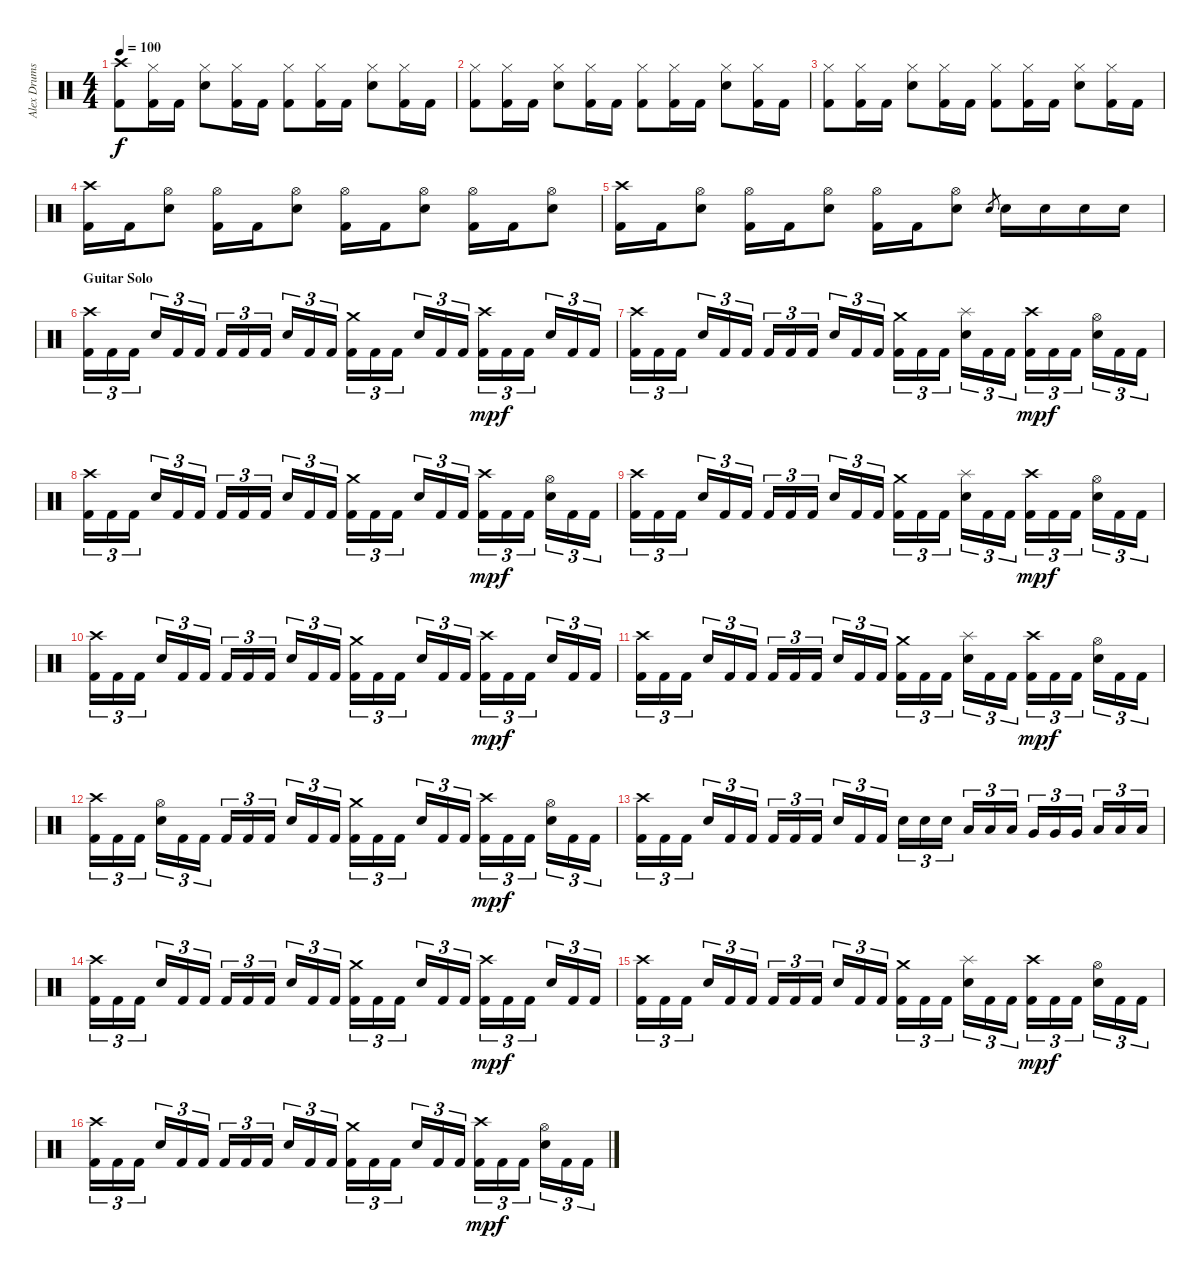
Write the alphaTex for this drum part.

\track ("Alex Drums" "Alex Drums") {instrument percussion}
\staff {score}
\articulation defaults
\ts (4 4)
\tempo 100
\clef neutral
\ks c
("Crash high (hit)" "Kick (hit) 2").8{dy f} ("Hi-Hat (closed)" "Kick (hit) 2").16 "Kick (hit) 2".16 ("Hi-Hat (closed)" "Electric Snare (hit)").8 ("Hi-Hat (closed)" "Kick (hit) 2").16 "Kick (hit) 2".16 ("Hi-Hat (closed)" "Kick (hit) 2").8 ("Hi-Hat (closed)" "Kick (hit) 2").16 "Kick (hit) 2".16 ("Hi-Hat (closed)" "Electric Snare (hit)").8 ("Hi-Hat (closed)" "Kick (hit) 2").16 "Kick (hit) 2".16 |
("Hi-Hat (closed)" "Kick (hit) 2").8 ("Hi-Hat (closed)" "Kick (hit) 2").16 "Kick (hit) 2".16 ("Hi-Hat (closed)" "Electric Snare (hit)").8 ("Hi-Hat (closed)" "Kick (hit) 2").16 "Kick (hit) 2".16 ("Hi-Hat (closed)" "Kick (hit) 2").8 ("Hi-Hat (closed)" "Kick (hit) 2").16 "Kick (hit) 2".16 ("Hi-Hat (closed)" "Electric Snare (hit)").8 ("Hi-Hat (closed)" "Kick (hit) 2").16 "Kick (hit) 2".16 |
("Hi-Hat (closed)" "Kick (hit) 2").8 ("Hi-Hat (closed)" "Kick (hit) 2").16 "Kick (hit) 2".16 ("Hi-Hat (closed)" "Electric Snare (hit)").8 ("Hi-Hat (closed)" "Kick (hit) 2").16 "Kick (hit) 2".16 ("Hi-Hat (closed)" "Kick (hit) 2").8 ("Hi-Hat (closed)" "Kick (hit) 2").16 "Kick (hit) 2".16 ("Hi-Hat (closed)" "Electric Snare (hit)").8 ("Hi-Hat (closed)" "Kick (hit) 2").16 "Kick (hit) 2".16 |
("Crash high (hit)" "Kick (hit) 2").16 "Kick (hit) 2".16 ("Hi-Hat (open)" "Electric Snare (hit)").8 ("Hi-Hat (open)" "Kick (hit) 2").16 "Kick (hit) 2".16 ("Hi-Hat (open)" "Electric Snare (hit)").8 ("Hi-Hat (open)" "Kick (hit) 2").16 "Kick (hit) 2".16 ("Hi-Hat (open)" "Electric Snare (hit)").8 ("Hi-Hat (open)" "Kick (hit) 2").16 "Kick (hit) 2".16 ("Hi-Hat (open)" "Electric Snare (hit)").8 |
("Crash high (hit)" "Kick (hit) 2").16 "Kick (hit) 2".16 ("Hi-Hat (open)" "Electric Snare (hit)").8 ("Hi-Hat (open)" "Kick (hit) 2").16 "Kick (hit) 2".16 ("Hi-Hat (open)" "Electric Snare (hit)").8 ("Hi-Hat (open)" "Kick (hit) 2").16 "Kick (hit) 2".16 ("Hi-Hat (open)" "Electric Snare (hit)").8 "Electric Snare (hit)".8{gr} "Electric Snare (hit)".16 "Electric Snare (hit)".16 "Electric Snare (hit)".16 "Electric Snare (hit)".16 |
\section ("" "Guitar Solo")
("Crash high (hit)" "Kick (hit) 2").16{tu (3 2)} "Kick (hit) 2".16{tu (3 2)} "Kick (hit) 2".16{tu (3 2)} "Electric Snare (hit)".16{tu (3 2)} "Kick (hit) 2".16{tu (3 2)} "Kick (hit) 2".16{tu (3 2)} "Kick (hit) 2".16{tu (3 2)} "Kick (hit) 2".16{tu (3 2)} "Kick (hit) 2".16{tu (3 2)} "Electric Snare (hit)".16{tu (3 2)} "Kick (hit) 2".16{tu (3 2)} "Kick (hit) 2".16{tu (3 2)} ("Crash medium (hit)" "Kick (hit) 2").16{tu (3 2)} "Kick (hit) 2".16{tu (3 2)} "Kick (hit) 2".16{tu (3 2)} "Electric Snare (hit)".16{tu (3 2)} "Kick (hit) 2".16{tu (3 2)} "Kick (hit) 2".16{tu (3 2)} ("Crash high (hit)" "Kick (hit) 2").16{tu (3 2) dy mp} "Kick (hit) 2".16{tu (3 2) dy f} "Kick (hit) 2".16{tu (3 2)} "Electric Snare (hit)".16{tu (3 2)} "Kick (hit) 2".16{tu (3 2)} "Kick (hit) 2".16{tu (3 2)} |
("Crash high (hit)" "Kick (hit) 2").16{tu (3 2)} "Kick (hit) 2".16{tu (3 2)} "Kick (hit) 2".16{tu (3 2)} "Electric Snare (hit)".16{tu (3 2)} "Kick (hit) 2".16{tu (3 2)} "Kick (hit) 2".16{tu (3 2)} "Kick (hit) 2".16{tu (3 2)} "Kick (hit) 2".16{tu (3 2)} "Kick (hit) 2".16{tu (3 2)} "Electric Snare (hit)".16{tu (3 2)} "Kick (hit) 2".16{tu (3 2)} "Kick (hit) 2".16{tu (3 2)} ("Crash medium (hit)" "Kick (hit) 2").16{tu (3 2)} "Kick (hit) 2".16{tu (3 2)} "Kick (hit) 2".16{tu (3 2)} ("Splash (hit)" "Electric Snare (hit)").16{tu (3 2)} "Kick (hit) 2".16{tu (3 2)} "Kick (hit) 2".16{tu (3 2)} ("Crash high (hit)" "Kick (hit) 2").16{tu (3 2) dy mp} "Kick (hit) 2".16{tu (3 2) dy f} "Kick (hit) 2".16{tu (3 2)} ("Hi-Hat (open)" "Electric Snare (hit)").16{tu (3 2)} "Kick (hit) 2".16{tu (3 2)} "Kick (hit) 2".16{tu (3 2)} |
("Crash high (hit)" "Kick (hit) 2").16{tu (3 2)} "Kick (hit) 2".16{tu (3 2)} "Kick (hit) 2".16{tu (3 2)} "Electric Snare (hit)".16{tu (3 2)} "Kick (hit) 2".16{tu (3 2)} "Kick (hit) 2".16{tu (3 2)} "Kick (hit) 2".16{tu (3 2)} "Kick (hit) 2".16{tu (3 2)} "Kick (hit) 2".16{tu (3 2)} "Electric Snare (hit)".16{tu (3 2)} "Kick (hit) 2".16{tu (3 2)} "Kick (hit) 2".16{tu (3 2)} ("Crash medium (hit)" "Kick (hit) 2").16{tu (3 2)} "Kick (hit) 2".16{tu (3 2)} "Kick (hit) 2".16{tu (3 2)} "Electric Snare (hit)".16{tu (3 2)} "Kick (hit) 2".16{tu (3 2)} "Kick (hit) 2".16{tu (3 2)} ("Crash high (hit)" "Kick (hit) 2").16{tu (3 2) dy mp} "Kick (hit) 2".16{tu (3 2) dy f} "Kick (hit) 2".16{tu (3 2)} ("Hi-Hat (open)" "Electric Snare (hit)").16{tu (3 2)} "Kick (hit) 2".16{tu (3 2)} "Kick (hit) 2".16{tu (3 2)} |
("Crash high (hit)" "Kick (hit) 2").16{tu (3 2)} "Kick (hit) 2".16{tu (3 2)} "Kick (hit) 2".16{tu (3 2)} "Electric Snare (hit)".16{tu (3 2)} "Kick (hit) 2".16{tu (3 2)} "Kick (hit) 2".16{tu (3 2)} "Kick (hit) 2".16{tu (3 2)} "Kick (hit) 2".16{tu (3 2)} "Kick (hit) 2".16{tu (3 2)} "Electric Snare (hit)".16{tu (3 2)} "Kick (hit) 2".16{tu (3 2)} "Kick (hit) 2".16{tu (3 2)} ("Crash medium (hit)" "Kick (hit) 2").16{tu (3 2)} "Kick (hit) 2".16{tu (3 2)} "Kick (hit) 2".16{tu (3 2)} ("Splash (hit)" "Electric Snare (hit)").16{tu (3 2)} "Kick (hit) 2".16{tu (3 2)} "Kick (hit) 2".16{tu (3 2)} ("Crash high (hit)" "Kick (hit) 2").16{tu (3 2) dy mp} "Kick (hit) 2".16{tu (3 2) dy f} "Kick (hit) 2".16{tu (3 2)} ("Hi-Hat (open)" "Electric Snare (hit)").16{tu (3 2)} "Kick (hit) 2".16{tu (3 2)} "Kick (hit) 2".16{tu (3 2)} |
("Crash high (hit)" "Kick (hit) 2").16{tu (3 2)} "Kick (hit) 2".16{tu (3 2)} "Kick (hit) 2".16{tu (3 2)} "Electric Snare (hit)".16{tu (3 2)} "Kick (hit) 2".16{tu (3 2)} "Kick (hit) 2".16{tu (3 2)} "Kick (hit) 2".16{tu (3 2)} "Kick (hit) 2".16{tu (3 2)} "Kick (hit) 2".16{tu (3 2)} "Electric Snare (hit)".16{tu (3 2)} "Kick (hit) 2".16{tu (3 2)} "Kick (hit) 2".16{tu (3 2)} ("Crash medium (hit)" "Kick (hit) 2").16{tu (3 2)} "Kick (hit) 2".16{tu (3 2)} "Kick (hit) 2".16{tu (3 2)} "Electric Snare (hit)".16{tu (3 2)} "Kick (hit) 2".16{tu (3 2)} "Kick (hit) 2".16{tu (3 2)} ("Crash high (hit)" "Kick (hit) 2").16{tu (3 2) dy mp} "Kick (hit) 2".16{tu (3 2) dy f} "Kick (hit) 2".16{tu (3 2)} "Electric Snare (hit)".16{tu (3 2)} "Kick (hit) 2".16{tu (3 2)} "Kick (hit) 2".16{tu (3 2)} |
("Crash high (hit)" "Kick (hit) 2").16{tu (3 2)} "Kick (hit) 2".16{tu (3 2)} "Kick (hit) 2".16{tu (3 2)} "Electric Snare (hit)".16{tu (3 2)} "Kick (hit) 2".16{tu (3 2)} "Kick (hit) 2".16{tu (3 2)} "Kick (hit) 2".16{tu (3 2)} "Kick (hit) 2".16{tu (3 2)} "Kick (hit) 2".16{tu (3 2)} "Electric Snare (hit)".16{tu (3 2)} "Kick (hit) 2".16{tu (3 2)} "Kick (hit) 2".16{tu (3 2)} ("Crash medium (hit)" "Kick (hit) 2").16{tu (3 2)} "Kick (hit) 2".16{tu (3 2)} "Kick (hit) 2".16{tu (3 2)} ("Splash (hit)" "Electric Snare (hit)").16{tu (3 2)} "Kick (hit) 2".16{tu (3 2)} "Kick (hit) 2".16{tu (3 2)} ("Crash high (hit)" "Kick (hit) 2").16{tu (3 2) dy mp} "Kick (hit) 2".16{tu (3 2) dy f} "Kick (hit) 2".16{tu (3 2)} ("Hi-Hat (open)" "Electric Snare (hit)").16{tu (3 2)} "Kick (hit) 2".16{tu (3 2)} "Kick (hit) 2".16{tu (3 2)} |
("Crash high (hit)" "Kick (hit) 2").16{tu (3 2)} "Kick (hit) 2".16{tu (3 2)} "Kick (hit) 2".16{tu (3 2)} ("Hi-Hat (open)" "Electric Snare (hit)").16{tu (3 2)} "Kick (hit) 2".16{tu (3 2)} "Kick (hit) 2".16{tu (3 2)} "Kick (hit) 2".16{tu (3 2)} "Kick (hit) 2".16{tu (3 2)} "Kick (hit) 2".16{tu (3 2)} "Electric Snare (hit)".16{tu (3 2)} "Kick (hit) 2".16{tu (3 2)} "Kick (hit) 2".16{tu (3 2)} ("Crash medium (hit)" "Kick (hit) 2").16{tu (3 2)} "Kick (hit) 2".16{tu (3 2)} "Kick (hit) 2".16{tu (3 2)} "Electric Snare (hit)".16{tu (3 2)} "Kick (hit) 2".16{tu (3 2)} "Kick (hit) 2".16{tu (3 2)} ("Crash high (hit)" "Kick (hit) 2").16{tu (3 2) dy mp} "Kick (hit) 2".16{tu (3 2) dy f} "Kick (hit) 2".16{tu (3 2)} ("Hi-Hat (open)" "Electric Snare (hit)").16{tu (3 2)} "Kick (hit) 2".16{tu (3 2)} "Kick (hit) 2".16{tu (3 2)} |
("Crash high (hit)" "Kick (hit) 2").16{tu (3 2)} "Kick (hit) 2".16{tu (3 2)} "Kick (hit) 2".16{tu (3 2)} "Electric Snare (hit)".16{tu (3 2)} "Kick (hit) 2".16{tu (3 2)} "Kick (hit) 2".16{tu (3 2)} "Kick (hit) 2".16{tu (3 2)} "Kick (hit) 2".16{tu (3 2)} "Kick (hit) 2".16{tu (3 2)} "Electric Snare (hit)".16{tu (3 2)} "Kick (hit) 2".16{tu (3 2)} "Kick (hit) 2".16{tu (3 2)} "Electric Snare (hit)".16{tu (3 2)} "Electric Snare (hit)".16{tu (3 2)} "Electric Snare (hit)".16{tu (3 2)} "Low Tom (hit)".16{tu (3 2)} "Low Tom (hit)".16{tu (3 2)} "Low Tom (hit)".16{tu (3 2)} "Very Low Tom (hit)".16{tu (3 2)} "Very Low Tom (hit)".16{tu (3 2)} "Very Low Tom (hit)".16{tu (3 2)} "Low Floor Tom (hit)".16{tu (3 2)} "Low Floor Tom (hit)".16{tu (3 2)} "Low Floor Tom (hit)".16{tu (3 2)} |
("Crash high (hit)" "Kick (hit) 2").16{tu (3 2)} "Kick (hit) 2".16{tu (3 2)} "Kick (hit) 2".16{tu (3 2)} "Electric Snare (hit)".16{tu (3 2)} "Kick (hit) 2".16{tu (3 2)} "Kick (hit) 2".16{tu (3 2)} "Kick (hit) 2".16{tu (3 2)} "Kick (hit) 2".16{tu (3 2)} "Kick (hit) 2".16{tu (3 2)} "Electric Snare (hit)".16{tu (3 2)} "Kick (hit) 2".16{tu (3 2)} "Kick (hit) 2".16{tu (3 2)} ("Crash medium (hit)" "Kick (hit) 2").16{tu (3 2)} "Kick (hit) 2".16{tu (3 2)} "Kick (hit) 2".16{tu (3 2)} "Electric Snare (hit)".16{tu (3 2)} "Kick (hit) 2".16{tu (3 2)} "Kick (hit) 2".16{tu (3 2)} ("Crash high (hit)" "Kick (hit) 2").16{tu (3 2) dy mp} "Kick (hit) 2".16{tu (3 2) dy f} "Kick (hit) 2".16{tu (3 2)} "Electric Snare (hit)".16{tu (3 2)} "Kick (hit) 2".16{tu (3 2)} "Kick (hit) 2".16{tu (3 2)} |
("Crash high (hit)" "Kick (hit) 2").16{tu (3 2)} "Kick (hit) 2".16{tu (3 2)} "Kick (hit) 2".16{tu (3 2)} "Electric Snare (hit)".16{tu (3 2)} "Kick (hit) 2".16{tu (3 2)} "Kick (hit) 2".16{tu (3 2)} "Kick (hit) 2".16{tu (3 2)} "Kick (hit) 2".16{tu (3 2)} "Kick (hit) 2".16{tu (3 2)} "Electric Snare (hit)".16{tu (3 2)} "Kick (hit) 2".16{tu (3 2)} "Kick (hit) 2".16{tu (3 2)} ("Crash medium (hit)" "Kick (hit) 2").16{tu (3 2)} "Kick (hit) 2".16{tu (3 2)} "Kick (hit) 2".16{tu (3 2)} ("Splash (hit)" "Electric Snare (hit)").16{tu (3 2)} "Kick (hit) 2".16{tu (3 2)} "Kick (hit) 2".16{tu (3 2)} ("Crash high (hit)" "Kick (hit) 2").16{tu (3 2) dy mp} "Kick (hit) 2".16{tu (3 2) dy f} "Kick (hit) 2".16{tu (3 2)} ("Hi-Hat (open)" "Electric Snare (hit)").16{tu (3 2)} "Kick (hit) 2".16{tu (3 2)} "Kick (hit) 2".16{tu (3 2)} |
("Crash high (hit)" "Kick (hit) 2").16{tu (3 2)} "Kick (hit) 2".16{tu (3 2)} "Kick (hit) 2".16{tu (3 2)} "Electric Snare (hit)".16{tu (3 2)} "Kick (hit) 2".16{tu (3 2)} "Kick (hit) 2".16{tu (3 2)} "Kick (hit) 2".16{tu (3 2)} "Kick (hit) 2".16{tu (3 2)} "Kick (hit) 2".16{tu (3 2)} "Electric Snare (hit)".16{tu (3 2)} "Kick (hit) 2".16{tu (3 2)} "Kick (hit) 2".16{tu (3 2)} ("Crash medium (hit)" "Kick (hit) 2").16{tu (3 2)} "Kick (hit) 2".16{tu (3 2)} "Kick (hit) 2".16{tu (3 2)} "Electric Snare (hit)".16{tu (3 2)} "Kick (hit) 2".16{tu (3 2)} "Kick (hit) 2".16{tu (3 2)} ("Crash high (hit)" "Kick (hit) 2").16{tu (3 2) dy mp} "Kick (hit) 2".16{tu (3 2) dy f} "Kick (hit) 2".16{tu (3 2)} ("Hi-Hat (open)" "Electric Snare (hit)").16{tu (3 2)} "Kick (hit) 2".16{tu (3 2)} "Kick (hit) 2".16{tu (3 2)}
